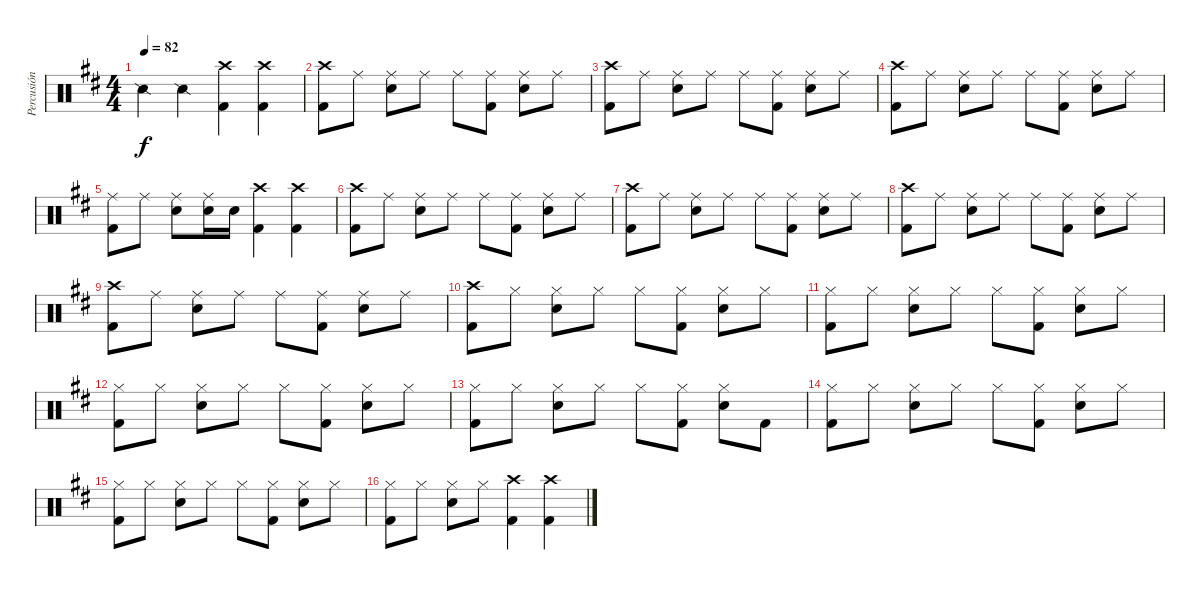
\track ("Percusión" "Percusión") {instrument percussion}
\staff {score}
\articulation defaults
\ts (4 4)
\tempo 82
\clef neutral
\ks d "Snare (side stick) 2".4{dy f} "Snare (side stick) 2".4
("Crash high (hit)" "Kick (hit) 2").4 ("Crash high (hit)" "Kick (hit) 2").4 |
("Crash high (hit)" "Kick (hit) 2").8 "Ride (middle)".8 ("Ride (middle)" "Snare (hit) 2").8 "Ride (middle)".8 "Ride (middle)".8 ("Ride (middle)" "Kick (hit) 2").8 ("Ride (middle)" "Snare (hit) 2").8 "Ride (middle)".8 |
("Crash high (hit)" "Kick (hit) 2").8 "Ride (middle)".8 ("Ride (middle)" "Snare (hit) 2").8 "Ride (middle)".8 "Ride (middle)".8 ("Ride (middle)" "Kick (hit) 2").8 ("Ride (middle)" "Snare (hit) 2").8 "Ride (middle)".8 |
("Crash high (hit)" "Kick (hit) 2").8 "Ride (middle)".8 ("Ride (middle)" "Snare (hit) 2").8 "Ride (middle)".8 "Ride (middle)".8 ("Ride (middle)" "Kick (hit) 2").8 ("Ride (middle)" "Snare (hit) 2").8 "Ride (middle)".8 |
("Ride (middle)" "Kick (hit) 2").8 "Ride (middle)".8 ("Ride (middle)" "Snare (hit) 2").8 ("Ride (middle)" "Snare (hit) 2").16 "Snare (hit) 2".16 ("Crash high (hit)" "Kick (hit) 2").4 ("Crash high (hit)" "Kick (hit) 2").4 |
("Crash high (hit)" "Kick (hit) 2").8 "Ride (middle)".8 ("Ride (middle)" "Snare (hit) 2").8 "Ride (middle)".8 "Ride (middle)".8 ("Ride (middle)" "Kick (hit) 2").8 ("Ride (middle)" "Snare (hit) 2").8 "Ride (middle)".8 |
("Crash high (hit)" "Kick (hit) 2").8 "Ride (middle)".8 ("Ride (middle)" "Snare (hit) 2").8 "Ride (middle)".8 "Ride (middle)".8 ("Ride (middle)" "Kick (hit) 2").8 ("Ride (middle)" "Snare (hit) 2").8 "Ride (middle)".8 |
("Crash high (hit)" "Kick (hit) 2").8 "Ride (middle)".8 ("Ride (middle)" "Snare (hit) 2").8 "Ride (middle)".8 "Ride (middle)".8 ("Ride (middle)" "Kick (hit) 2").8 ("Ride (middle)" "Snare (hit) 2").8 "Ride (middle)".8 |
("Crash high (hit)" "Kick (hit) 2").8 "Ride (middle)".8 ("Ride (middle)" "Snare (hit) 2").8 "Ride (middle)".8 "Ride (middle)".8 ("Ride (middle)" "Kick (hit) 2").8 ("Ride (middle)" "Snare (hit) 2").8 "Ride (middle)".8 |
("Crash high (hit)" "Kick (hit) 2").8 "Hi-Hat (closed)".8 ("Hi-Hat (closed)" "Snare (hit) 2").8 "Hi-Hat (closed)".8 "Hi-Hat (closed)".8 ("Hi-Hat (closed)" "Kick (hit) 2").8 ("Hi-Hat (closed)" "Snare (hit) 2").8 "Hi-Hat (closed)".8 |
("Hi-Hat (closed)" "Kick (hit) 2").8 "Hi-Hat (closed)".8 ("Hi-Hat (closed)" "Snare (hit) 2").8 "Hi-Hat (closed)".8 "Hi-Hat (closed)".8 ("Hi-Hat (closed)" "Kick (hit) 2").8 ("Hi-Hat (closed)" "Snare (hit) 2").8 "Hi-Hat (closed)".8 |
("Hi-Hat (closed)" "Kick (hit) 2").8 "Hi-Hat (closed)".8 ("Hi-Hat (closed)" "Snare (hit) 2").8 "Hi-Hat (closed)".8 "Hi-Hat (closed)".8 ("Hi-Hat (closed)" "Kick (hit) 2").8 ("Hi-Hat (closed)" "Snare (hit) 2").8 "Hi-Hat (closed)".8 |
("Hi-Hat (closed)" "Kick (hit) 2").8 "Hi-Hat (closed)".8 ("Hi-Hat (closed)" "Snare (hit) 2").8 "Hi-Hat (closed)".8 "Hi-Hat (closed)".8 ("Hi-Hat (closed)" "Kick (hit) 2").8 ("Hi-Hat (closed)" "Snare (hit) 2").8 "Kick (hit) 2".8 |
("Hi-Hat (closed)" "Kick (hit) 2").8 "Hi-Hat (closed)".8 ("Hi-Hat (closed)" "Snare (hit) 2").8 "Hi-Hat (closed)".8 "Hi-Hat (closed)".8 ("Hi-Hat (closed)" "Kick (hit) 2").8 ("Hi-Hat (closed)" "Snare (hit) 2").8 "Hi-Hat (closed)".8 |
("Hi-Hat (closed)" "Kick (hit) 2").8 "Hi-Hat (closed)".8 ("Hi-Hat (closed)" "Snare (hit) 2").8 "Hi-Hat (closed)".8 "Hi-Hat (closed)".8 ("Hi-Hat (closed)" "Kick (hit) 2").8 ("Hi-Hat (closed)" "Snare (hit) 2").8 "Hi-Hat (closed)".8 |
("Hi-Hat (closed)" "Kick (hit) 2").8 "Hi-Hat (closed)".8 ("Hi-Hat (closed)" "Snare (hit) 2").8 "Hi-Hat (closed)".8 ("Crash high (hit)" "Kick (hit) 2").4 ("Crash high (hit)" "Kick (hit) 2").4
